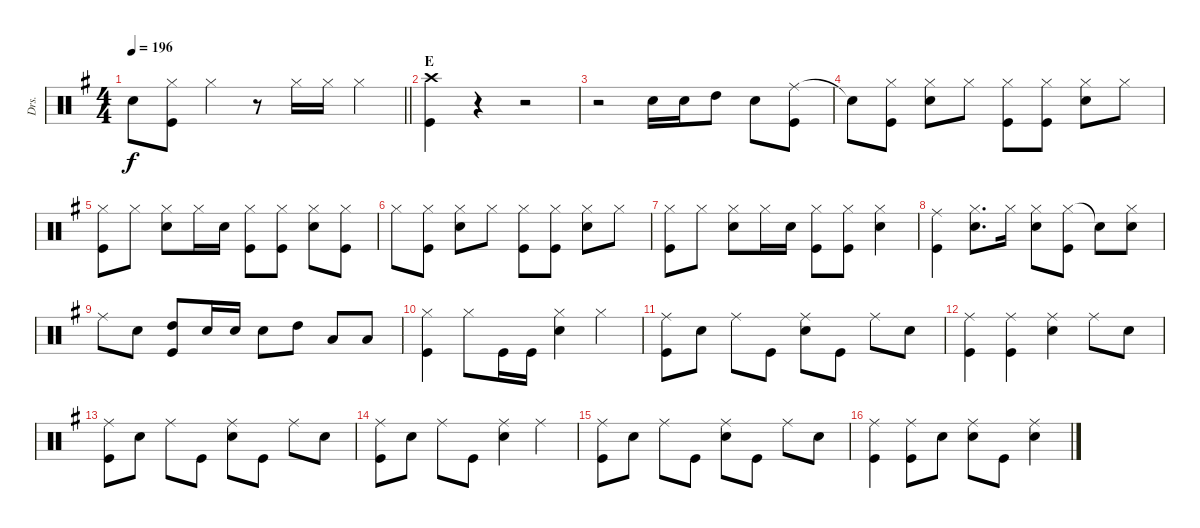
\track ("Drs." "Drs.") {instrument percussion}
\staff {score}
\articulation defaults
\ts (4 4)
\tempo 196
\clef neutral
\barLineRight lightlight
\ks g "Snare (hit)"{t}.8{dy f}
("Hi-Hat (closed)" "Kick (hit)").8 "Hi-Hat (closed)".4 r.8 "Hi-Hat (closed)".16 "Hi-Hat (closed)".16 "Hi-Hat (closed)".4 |
\section ("" "E")
("Crash high (hit)" "Kick (hit)").4 r.4 r.2 |
r.2 "Snare (hit) 2".16 "Snare (hit) 2".16 "High Tom (hit)".8 "Snare (hit) 2".8 ("Ride (middle)" "Kick (hit)").8 |
"Snare (hit)"{t}.8 ("Hi-Hat (closed)" "Kick (hit)").8 ("Hi-Hat (closed)" "Snare (hit) 2").8 "Hi-Hat (closed)".8 ("Hi-Hat (closed)" "Kick (hit)").8 ("Hi-Hat (closed)" "Kick (hit)").8 ("Hi-Hat (closed)" "Snare (hit) 2").8 "Hi-Hat (closed)".8 |
("Hi-Hat (closed)" "Kick (hit)").8 "Hi-Hat (closed)".8 ("Hi-Hat (closed)" "Snare (hit) 2").8 "Hi-Hat (closed)".16 "Snare (hit) 2".16 ("Hi-Hat (closed)" "Kick (hit)").8 ("Hi-Hat (closed)" "Kick (hit)").8 ("Hi-Hat (closed)" "Snare (hit) 2").8 ("Hi-Hat (closed)" "Kick (hit)").8 |
"Hi-Hat (closed)".8 ("Hi-Hat (closed)" "Kick (hit)").8 ("Hi-Hat (closed)" "Snare (hit) 2").8 "Hi-Hat (closed)".8 ("Hi-Hat (closed)" "Kick (hit)").8 ("Hi-Hat (closed)" "Kick (hit)").8 ("Hi-Hat (closed)" "Snare (hit) 2").8 "Hi-Hat (closed)".8 |
("Hi-Hat (closed)" "Kick (hit)").8 "Hi-Hat (closed)".8 ("Hi-Hat (closed)" "Snare (hit) 2").8 "Hi-Hat (closed)".16 "Snare (hit) 2".16 ("Hi-Hat (closed)" "Kick (hit)").8 ("Hi-Hat (closed)" "Kick (hit)").8 ("Hi-Hat (closed)" "Snare (hit) 2").4 |
("Ride (middle)" "Kick (hit)").4 ("Hi-Hat (closed)" "Snare (hit) 2").8{d} "Hi-Hat (closed)".16 ("Hi-Hat (closed)" "Snare (hit) 2").8 ("Hi-Hat (closed)" "Kick (hit)").8 "Snare (hit)"{t}.8 ("Hi-Hat (closed)" "Snare (hit) 2").8 |
"Ride (middle)".8 "Snare (hit) 2".8 ("High Tom (hit)" "Kick (hit)").8 "Snare (hit) 2".16 "Snare (hit) 2".16 "Snare (hit) 2".8 "High Tom (hit)".8 "Low Tom (hit)".8 "Low Tom (hit)".8 |
("Hi-Hat (closed)" "Kick (hit)").4 "Hi-Hat (closed)".8 "Kick (hit)".16 "Kick (hit)".16 ("Hi-Hat (closed)" "Snare (hit) 2").4 "Hi-Hat (closed)".4 |
("Ride (middle)" "Kick (hit)").8 "Snare (hit) 2".8 "Ride (middle)".8 "Kick (hit)".8 ("Ride (middle)" "Snare (hit) 2").8 "Kick (hit)".8 "Ride (middle)".8 "Snare (hit) 2".8 |
("Ride (middle)" "Kick (hit)").4 ("Ride (middle)" "Kick (hit)").4 ("Ride (middle)" "Snare (hit) 2").4 "Ride (middle)".8 "Snare (hit) 2".8 |
("Ride (middle)" "Kick (hit)").8 "Snare (hit) 2".8 "Ride (middle)".8 "Kick (hit)".8 ("Ride (middle)" "Snare (hit) 2").8 "Kick (hit)".8 "Ride (middle)".8 "Snare (hit) 2".8 |
("Ride (middle)" "Kick (hit)").8 "Snare (hit) 2".8 "Ride (middle)".8 "Kick (hit)".8 ("Ride (middle)" "Snare (hit) 2").4 "Ride (middle)".4 |
("Ride (middle)" "Kick (hit)").8 "Snare (hit) 2".8 "Ride (middle)".8 "Kick (hit)".8 ("Ride (middle)" "Snare (hit) 2").8 "Kick (hit)".8 "Ride (middle)".8 "Snare (hit) 2".8 |
("Ride (middle)" "Kick (hit)").4 ("Ride (middle)" "Kick (hit)").8 "Snare (hit) 2".8 ("Ride (middle)" "Snare (hit) 2").8 "Kick (hit)".8 ("Ride (middle)" "Snare (hit) 2").4
